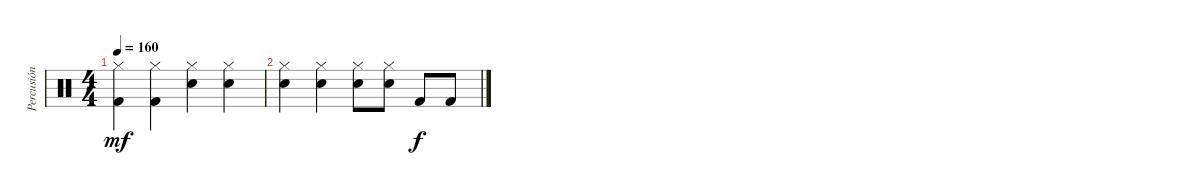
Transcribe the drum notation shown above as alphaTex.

\track ("Percusión" "Percusión") {instrument percussion}
\staff {score}
\articulation defaults
\ts (4 4)
\tempo 160
\clef neutral
\ks c
("Hi-Hat (closed)" "Kick (hit) 2").4{dy mf} ("Hi-Hat (closed)" "Kick (hit) 2").4 ("Hi-Hat (closed)" "Snare (hit) 2").4 ("Hi-Hat (closed)" "Snare (hit) 2").4 |
("Hi-Hat (closed)" "Snare (hit) 2").4 ("Hi-Hat (closed)" "Electric Snare (hit)").4 ("Hi-Hat (closed)" "Snare (hit) 2").8 ("Hi-Hat (closed)" "Snare (hit) 2").8 "Kick (hit) 2".8{dy f} "Kick (hit) 2".8
